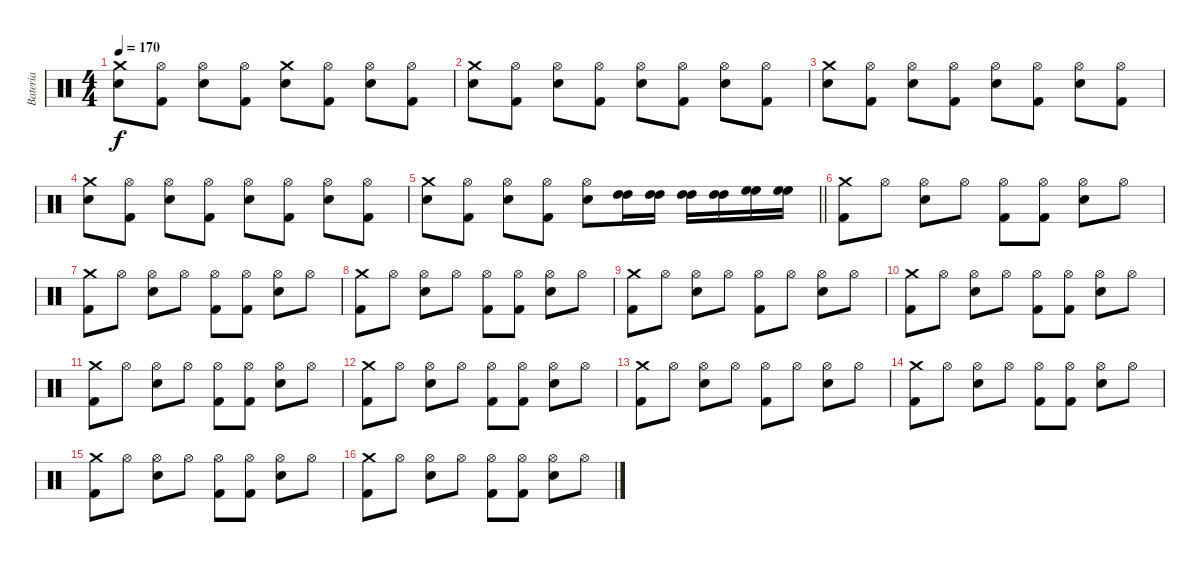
\track ("Bateria" "Bateria") {instrument percussion}
\staff {score}
\articulation defaults
\ts (4 4)
\tempo 170
\clef neutral
\ks c
("Crash medium (hit)" "Snare (hit) 2").8{dy f} ("Hi-Hat (open)" "Kick (hit) 2").8 ("Hi-Hat (open)" "Snare (hit) 2").8 ("Hi-Hat (open)" "Kick (hit) 2").8 ("Crash medium (hit)" "Snare (hit) 2").8 ("Hi-Hat (open)" "Kick (hit) 2").8 ("Hi-Hat (open)" "Snare (hit) 2").8 ("Hi-Hat (open)" "Kick (hit) 2").8 |
("Crash medium (hit)" "Snare (hit) 2").8 ("Hi-Hat (open)" "Kick (hit) 2").8 ("Hi-Hat (open)" "Snare (hit) 2").8 ("Hi-Hat (open)" "Kick (hit) 2").8 ("Hi-Hat (open)" "Snare (hit) 2").8 ("Hi-Hat (open)" "Kick (hit) 2").8 ("Hi-Hat (open)" "Snare (hit) 2").8 ("Hi-Hat (open)" "Kick (hit) 2").8 |
("Crash medium (hit)" "Snare (hit) 2").8 ("Hi-Hat (open)" "Kick (hit) 2").8 ("Hi-Hat (open)" "Snare (hit) 2").8 ("Hi-Hat (open)" "Kick (hit) 2").8 ("Hi-Hat (open)" "Snare (hit) 2").8 ("Hi-Hat (open)" "Kick (hit) 2").8 ("Hi-Hat (open)" "Snare (hit) 2").8 ("Hi-Hat (open)" "Kick (hit) 2").8 |
("Crash medium (hit)" "Snare (hit) 2").8 ("Hi-Hat (open)" "Kick (hit) 2").8 ("Hi-Hat (open)" "Snare (hit) 2").8 ("Hi-Hat (open)" "Kick (hit) 2").8 ("Hi-Hat (open)" "Snare (hit) 2").8 ("Hi-Hat (open)" "Kick (hit) 2").8 ("Hi-Hat (open)" "Snare (hit) 2").8 ("Hi-Hat (open)" "Kick (hit) 2").8 |
\barLineRight lightlight
("Crash medium (hit)" "Snare (hit) 2").8 ("Hi-Hat (open)" "Kick (hit) 2").8 ("Hi-Hat (open)" "Snare (hit) 2").8 ("Hi-Hat (open)" "Kick (hit) 2").8 ("Hi-Hat (open)" "Snare (hit) 2").8 ("High Tom (hit)" "High Tom (hit)").16 ("High Tom (hit)" "High Tom (hit)").16 ("High Tom (hit)" "High Tom (hit)").16 ("High Tom (hit)" "High Tom (hit)").16 ("High Floor Tom (hit)" "High Floor Tom (hit)").16 ("High Floor Tom (hit)" "High Floor Tom (hit)").16 |
("Crash medium (hit)" "Kick (hit) 2").8 "Hi-Hat (open)".8 ("Hi-Hat (open)" "Snare (hit) 2").8 "Hi-Hat (open)".8 ("Hi-Hat (open)" "Kick (hit) 2").8 ("Hi-Hat (open)" "Kick (hit) 2").8 ("Hi-Hat (open)" "Snare (hit) 2").8 "Hi-Hat (open)".8 |
("Crash medium (hit)" "Kick (hit) 2").8 "Hi-Hat (open)".8 ("Hi-Hat (open)" "Snare (hit) 2").8 "Hi-Hat (open)".8 ("Hi-Hat (open)" "Kick (hit) 2").8 ("Hi-Hat (open)" "Kick (hit) 2").8 ("Hi-Hat (open)" "Snare (hit) 2").8 "Hi-Hat (open)".8 |
("Crash medium (hit)" "Kick (hit) 2").8 "Hi-Hat (open)".8 ("Hi-Hat (open)" "Snare (hit) 2").8 "Hi-Hat (open)".8 ("Hi-Hat (open)" "Kick (hit) 2").8 ("Hi-Hat (open)" "Kick (hit) 2").8 ("Hi-Hat (open)" "Snare (hit) 2").8 "Hi-Hat (open)".8 |
("Crash medium (hit)" "Kick (hit) 2").8 "Hi-Hat (open)".8 ("Hi-Hat (open)" "Snare (hit) 2").8 "Hi-Hat (open)".8 ("Hi-Hat (open)" "Kick (hit) 2").8 "Hi-Hat (open)".8 ("Hi-Hat (open)" "Snare (hit) 2").8 "Hi-Hat (open)".8 |
("Crash medium (hit)" "Kick (hit) 2").8 "Hi-Hat (open)".8 ("Hi-Hat (open)" "Snare (hit) 2").8 "Hi-Hat (open)".8 ("Hi-Hat (open)" "Kick (hit) 2").8 ("Hi-Hat (open)" "Kick (hit) 2").8 ("Hi-Hat (open)" "Snare (hit) 2").8 "Hi-Hat (open)".8 |
("Crash medium (hit)" "Kick (hit) 2").8 "Hi-Hat (open)".8 ("Hi-Hat (open)" "Snare (hit) 2").8 "Hi-Hat (open)".8 ("Hi-Hat (open)" "Kick (hit) 2").8 ("Hi-Hat (open)" "Kick (hit) 2").8 ("Hi-Hat (open)" "Snare (hit) 2").8 "Hi-Hat (open)".8 |
("Crash medium (hit)" "Kick (hit) 2").8 "Hi-Hat (open)".8 ("Hi-Hat (open)" "Snare (hit) 2").8 "Hi-Hat (open)".8 ("Hi-Hat (open)" "Kick (hit) 2").8 ("Hi-Hat (open)" "Kick (hit) 2").8 ("Hi-Hat (open)" "Snare (hit) 2").8 "Hi-Hat (open)".8 |
("Crash medium (hit)" "Kick (hit) 2").8 "Hi-Hat (open)".8 ("Hi-Hat (open)" "Snare (hit) 2").8 "Hi-Hat (open)".8 ("Hi-Hat (open)" "Kick (hit) 2").8 "Hi-Hat (open)".8 ("Hi-Hat (open)" "Snare (hit) 2").8 "Hi-Hat (open)".8 |
("Crash medium (hit)" "Kick (hit) 2").8 "Hi-Hat (open)".8 ("Hi-Hat (open)" "Snare (hit) 2").8 "Hi-Hat (open)".8 ("Hi-Hat (open)" "Kick (hit) 2").8 ("Hi-Hat (open)" "Kick (hit) 2").8 ("Hi-Hat (open)" "Snare (hit) 2").8 "Hi-Hat (open)".8 |
("Crash medium (hit)" "Kick (hit) 2").8 "Hi-Hat (open)".8 ("Hi-Hat (open)" "Snare (hit) 2").8 "Hi-Hat (open)".8 ("Hi-Hat (open)" "Kick (hit) 2").8 ("Hi-Hat (open)" "Kick (hit) 2").8 ("Hi-Hat (open)" "Snare (hit) 2").8 "Hi-Hat (open)".8 |
("Crash medium (hit)" "Kick (hit) 2").8 "Hi-Hat (open)".8 ("Hi-Hat (open)" "Snare (hit) 2").8 "Hi-Hat (open)".8 ("Hi-Hat (open)" "Kick (hit) 2").8 ("Hi-Hat (open)" "Kick (hit) 2").8 ("Hi-Hat (open)" "Snare (hit) 2").8 "Hi-Hat (open)".8
